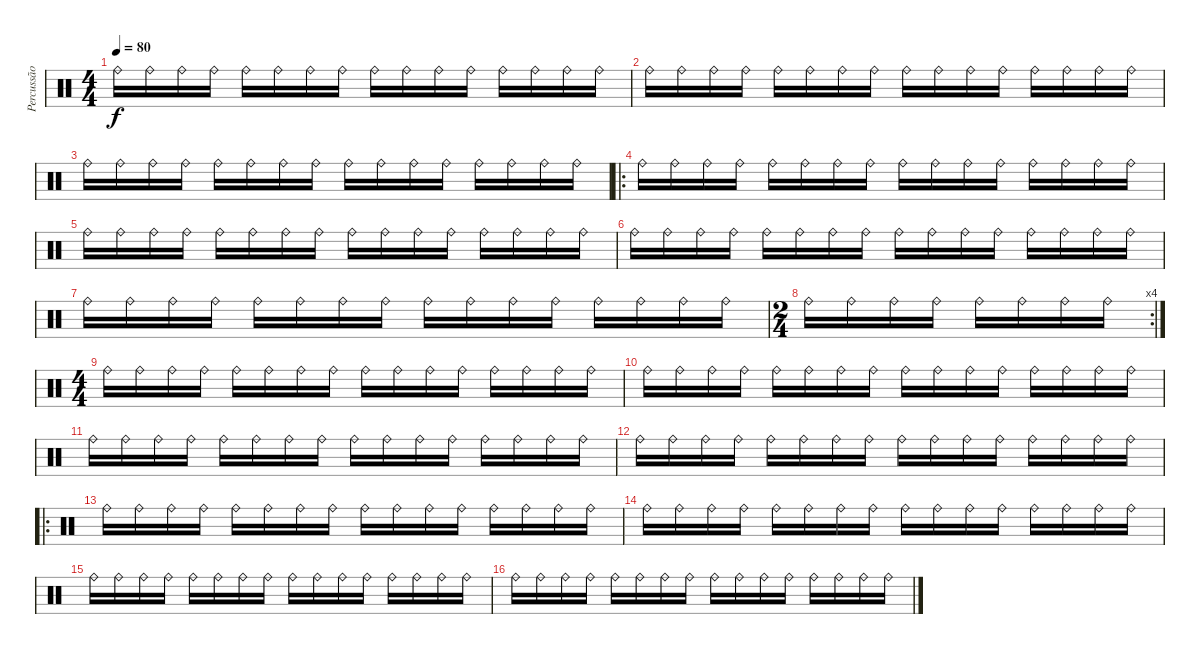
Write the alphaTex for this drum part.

\track ("Percussão" "Percussão") {instrument percussion}
\staff {score}
\articulation defaults
\ts (4 4)
\tempo 80
\clef neutral
\ks c "Ride (bell)".16{dy f} "Ride (bell)".16 "Ride (bell)".16 "Ride (bell)".16 "Ride (bell)".16 "Ride (bell)".16 "Ride (bell)".16 "Ride (bell)".16 "Ride (bell)".16 "Ride (bell)".16 "Ride (bell)".16 "Ride (bell)".16 "Ride (bell)".16 "Ride (bell)".16 "Ride (bell)".16 "Ride (bell)".16
|
"Ride (bell)".16 "Ride (bell)".16 "Ride (bell)".16 "Ride (bell)".16 "Ride (bell)".16 "Ride (bell)".16 "Ride (bell)".16 "Ride (bell)".16 "Ride (bell)".16 "Ride (bell)".16 "Ride (bell)".16 "Ride (bell)".16 "Ride (bell)".16 "Ride (bell)".16 "Ride (bell)".16 "Ride (bell)".16 |
"Ride (bell)".16 "Ride (bell)".16 "Ride (bell)".16 "Ride (bell)".16 "Ride (bell)".16 "Ride (bell)".16 "Ride (bell)".16 "Ride (bell)".16 "Ride (bell)".16 "Ride (bell)".16 "Ride (bell)".16 "Ride (bell)".16 "Ride (bell)".16 "Ride (bell)".16 "Ride (bell)".16 "Ride (bell)".16 |
\ro "Ride (bell)".16 "Ride (bell)".16 "Ride (bell)".16 "Ride (bell)".16 "Ride (bell)".16 "Ride (bell)".16 "Ride (bell)".16 "Ride (bell)".16 "Ride (bell)".16 "Ride (bell)".16 "Ride (bell)".16 "Ride (bell)".16 "Ride (bell)".16 "Ride (bell)".16 "Ride (bell)".16 "Ride (bell)".16
|
"Ride (bell)".16 "Ride (bell)".16 "Ride (bell)".16 "Ride (bell)".16 "Ride (bell)".16 "Ride (bell)".16 "Ride (bell)".16 "Ride (bell)".16 "Ride (bell)".16 "Ride (bell)".16 "Ride (bell)".16 "Ride (bell)".16 "Ride (bell)".16 "Ride (bell)".16 "Ride (bell)".16 "Ride (bell)".16 |
"Ride (bell)".16 "Ride (bell)".16 "Ride (bell)".16 "Ride (bell)".16 "Ride (bell)".16 "Ride (bell)".16 "Ride (bell)".16 "Ride (bell)".16 "Ride (bell)".16 "Ride (bell)".16 "Ride (bell)".16 "Ride (bell)".16 "Ride (bell)".16 "Ride (bell)".16 "Ride (bell)".16 "Ride (bell)".16 |
"Ride (bell)".16 "Ride (bell)".16 "Ride (bell)".16 "Ride (bell)".16 "Ride (bell)".16 "Ride (bell)".16 "Ride (bell)".16 "Ride (bell)".16 "Ride (bell)".16 "Ride (bell)".16 "Ride (bell)".16 "Ride (bell)".16 "Ride (bell)".16 "Ride (bell)".16 "Ride (bell)".16 "Ride (bell)".16 |
\rc 4
\ts (2 4)
"Ride (bell)".16 "Ride (bell)".16 "Ride (bell)".16 "Ride (bell)".16 "Ride (bell)".16 "Ride (bell)".16 "Ride (bell)".16 "Ride (bell)".16 |
\ts (4 4)
"Ride (bell)".16 "Ride (bell)".16 "Ride (bell)".16 "Ride (bell)".16 "Ride (bell)".16 "Ride (bell)".16 "Ride (bell)".16 "Ride (bell)".16 "Ride (bell)".16 "Ride (bell)".16 "Ride (bell)".16 "Ride (bell)".16 "Ride (bell)".16 "Ride (bell)".16 "Ride (bell)".16 "Ride (bell)".16 |
"Ride (bell)".16 "Ride (bell)".16 "Ride (bell)".16 "Ride (bell)".16 "Ride (bell)".16 "Ride (bell)".16 "Ride (bell)".16 "Ride (bell)".16 "Ride (bell)".16 "Ride (bell)".16 "Ride (bell)".16 "Ride (bell)".16 "Ride (bell)".16 "Ride (bell)".16 "Ride (bell)".16 "Ride (bell)".16 |
"Ride (bell)".16 "Ride (bell)".16 "Ride (bell)".16 "Ride (bell)".16 "Ride (bell)".16 "Ride (bell)".16 "Ride (bell)".16 "Ride (bell)".16 "Ride (bell)".16 "Ride (bell)".16 "Ride (bell)".16 "Ride (bell)".16 "Ride (bell)".16 "Ride (bell)".16 "Ride (bell)".16 "Ride (bell)".16 |
"Ride (bell)".16 "Ride (bell)".16 "Ride (bell)".16 "Ride (bell)".16 "Ride (bell)".16 "Ride (bell)".16 "Ride (bell)".16 "Ride (bell)".16 "Ride (bell)".16 "Ride (bell)".16 "Ride (bell)".16 "Ride (bell)".16 "Ride (bell)".16 "Ride (bell)".16 "Ride (bell)".16 "Ride (bell)".16 |
\ro "Ride (bell)".16 "Ride (bell)".16 "Ride (bell)".16 "Ride (bell)".16 "Ride (bell)".16 "Ride (bell)".16 "Ride (bell)".16 "Ride (bell)".16 "Ride (bell)".16 "Ride (bell)".16 "Ride (bell)".16 "Ride (bell)".16 "Ride (bell)".16 "Ride (bell)".16 "Ride (bell)".16 "Ride (bell)".16
|
"Ride (bell)".16 "Ride (bell)".16 "Ride (bell)".16 "Ride (bell)".16 "Ride (bell)".16 "Ride (bell)".16 "Ride (bell)".16 "Ride (bell)".16 "Ride (bell)".16 "Ride (bell)".16 "Ride (bell)".16 "Ride (bell)".16 "Ride (bell)".16 "Ride (bell)".16 "Ride (bell)".16 "Ride (bell)".16 |
"Ride (bell)".16 "Ride (bell)".16 "Ride (bell)".16 "Ride (bell)".16 "Ride (bell)".16 "Ride (bell)".16 "Ride (bell)".16 "Ride (bell)".16 "Ride (bell)".16 "Ride (bell)".16 "Ride (bell)".16 "Ride (bell)".16 "Ride (bell)".16 "Ride (bell)".16 "Ride (bell)".16 "Ride (bell)".16 |
"Ride (bell)".16 "Ride (bell)".16 "Ride (bell)".16 "Ride (bell)".16 "Ride (bell)".16 "Ride (bell)".16 "Ride (bell)".16 "Ride (bell)".16 "Ride (bell)".16 "Ride (bell)".16 "Ride (bell)".16 "Ride (bell)".16 "Ride (bell)".16 "Ride (bell)".16 "Ride (bell)".16 "Ride (bell)".16
